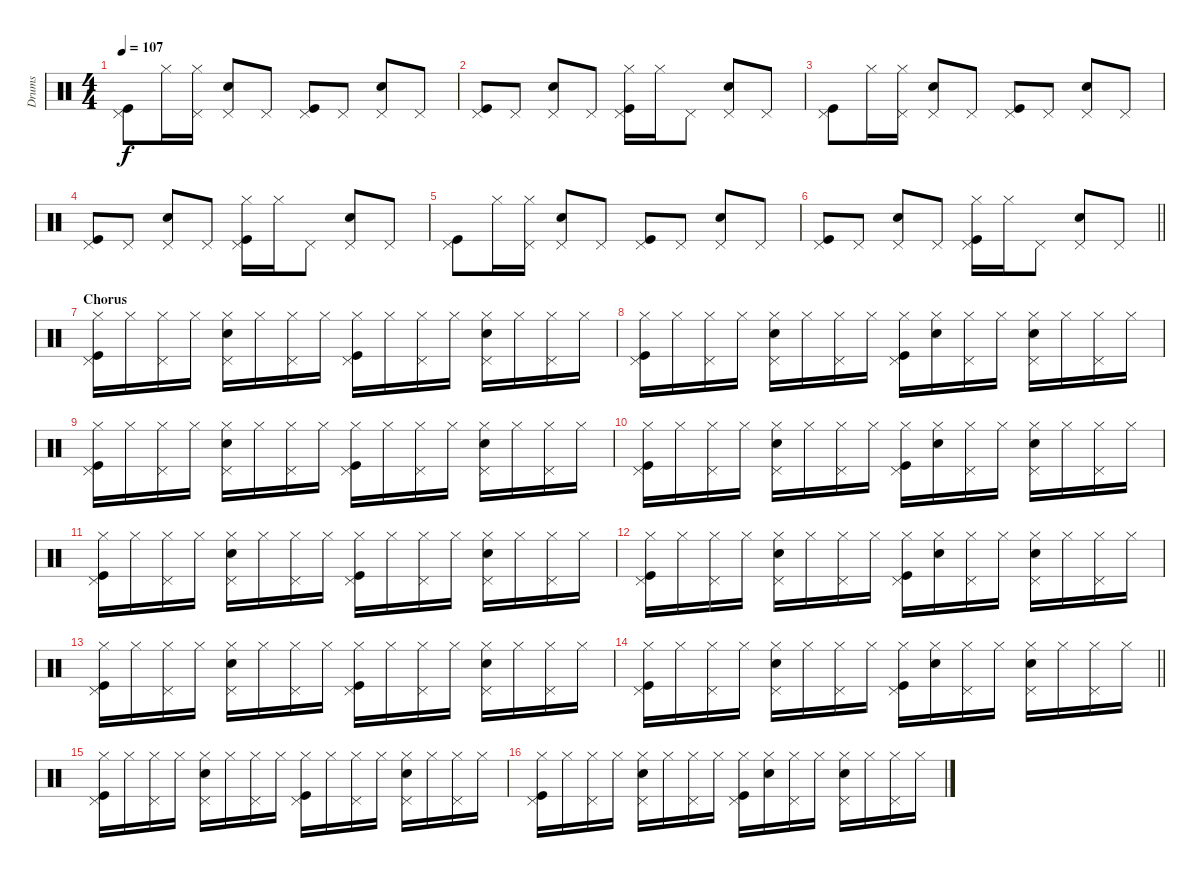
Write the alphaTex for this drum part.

\track ("Drums" "Drums") {instrument percussion}
\staff {score}
\articulation defaults
\ts (4 4)
\tempo 107
\clef neutral
\ks c
("Kick (hit)" "Pedal Hi-Hat (hit)").8{dy f} "Hi-Hat (closed)".16 ("Pedal Hi-Hat (hit)" "Hi-Hat (closed)").16 ("Snare (hit) 2" "Pedal Hi-Hat (hit)").8 "Pedal Hi-Hat (hit)".8 ("Kick (hit)" "Pedal Hi-Hat (hit)").8 "Pedal Hi-Hat (hit)".8 ("Snare (hit) 2" "Pedal Hi-Hat (hit)").8 "Pedal Hi-Hat (hit)".8 |
("Kick (hit)" "Pedal Hi-Hat (hit)").8 "Pedal Hi-Hat (hit)".8 ("Snare (hit) 2" "Pedal Hi-Hat (hit)").8 "Pedal Hi-Hat (hit)".8 ("Kick (hit)" "Pedal Hi-Hat (hit)" "Hi-Hat (closed)").16 "Hi-Hat (closed)".16 "Pedal Hi-Hat (hit)".8 ("Snare (hit) 2" "Pedal Hi-Hat (hit)").8 "Pedal Hi-Hat (hit)".8 |
("Kick (hit)" "Pedal Hi-Hat (hit)").8 "Hi-Hat (closed)".16 ("Pedal Hi-Hat (hit)" "Hi-Hat (closed)").16 ("Snare (hit) 2" "Pedal Hi-Hat (hit)").8 "Pedal Hi-Hat (hit)".8 ("Kick (hit)" "Pedal Hi-Hat (hit)").8 "Pedal Hi-Hat (hit)".8 ("Snare (hit) 2" "Pedal Hi-Hat (hit)").8 "Pedal Hi-Hat (hit)".8 |
("Kick (hit)" "Pedal Hi-Hat (hit)").8 "Pedal Hi-Hat (hit)".8 ("Snare (hit) 2" "Pedal Hi-Hat (hit)").8 "Pedal Hi-Hat (hit)".8 ("Kick (hit)" "Pedal Hi-Hat (hit)" "Hi-Hat (closed)").16 "Hi-Hat (closed)".16 "Pedal Hi-Hat (hit)".8 ("Snare (hit) 2" "Pedal Hi-Hat (hit)").8 "Pedal Hi-Hat (hit)".8 |
("Kick (hit)" "Pedal Hi-Hat (hit)").8 "Hi-Hat (closed)".16 ("Pedal Hi-Hat (hit)" "Hi-Hat (closed)").16 ("Snare (hit) 2" "Pedal Hi-Hat (hit)").8 "Pedal Hi-Hat (hit)".8 ("Kick (hit)" "Pedal Hi-Hat (hit)").8 "Pedal Hi-Hat (hit)".8 ("Snare (hit) 2" "Pedal Hi-Hat (hit)").8 "Pedal Hi-Hat (hit)".8 |
\barLineRight lightlight
("Kick (hit)" "Pedal Hi-Hat (hit)").8 "Pedal Hi-Hat (hit)".8 ("Snare (hit) 2" "Pedal Hi-Hat (hit)").8 "Pedal Hi-Hat (hit)".8 ("Kick (hit)" "Pedal Hi-Hat (hit)" "Hi-Hat (closed)").16 "Hi-Hat (closed)".16 "Pedal Hi-Hat (hit)".8 ("Snare (hit) 2" "Pedal Hi-Hat (hit)").8 "Pedal Hi-Hat (hit)".8 |
\section ("" "Chorus")
("Kick (hit)" "Pedal Hi-Hat (hit)" "Hi-Hat (closed)").16 "Hi-Hat (closed)".16 ("Pedal Hi-Hat (hit)" "Hi-Hat (closed)").16 "Hi-Hat (closed)".16 ("Snare (hit) 2" "Pedal Hi-Hat (hit)" "Hi-Hat (closed)").16 "Hi-Hat (closed)".16 ("Pedal Hi-Hat (hit)" "Hi-Hat (closed)").16 "Hi-Hat (closed)".16 ("Kick (hit)" "Pedal Hi-Hat (hit)" "Hi-Hat (closed)").16 "Hi-Hat (closed)".16 ("Pedal Hi-Hat (hit)" "Hi-Hat (closed)").16 "Hi-Hat (closed)".16 ("Snare (hit) 2" "Pedal Hi-Hat (hit)" "Hi-Hat (closed)").16 "Hi-Hat (closed)".16 ("Pedal Hi-Hat (hit)" "Hi-Hat (closed)").16 "Hi-Hat (closed)".16 |
("Kick (hit)" "Pedal Hi-Hat (hit)" "Hi-Hat (closed)").16 "Hi-Hat (closed)".16 ("Pedal Hi-Hat (hit)" "Hi-Hat (closed)").16 "Hi-Hat (closed)".16 ("Snare (hit) 2" "Pedal Hi-Hat (hit)" "Hi-Hat (closed)").16 "Hi-Hat (closed)".16 ("Pedal Hi-Hat (hit)" "Hi-Hat (closed)").16 "Hi-Hat (closed)".16 ("Kick (hit)" "Pedal Hi-Hat (hit)" "Hi-Hat (closed)").16 ("Snare (hit) 2" "Hi-Hat (closed)").16 ("Pedal Hi-Hat (hit)" "Hi-Hat (closed)").16 "Hi-Hat (closed)".16 ("Snare (hit) 2" "Pedal Hi-Hat (hit)" "Hi-Hat (closed)").16 "Hi-Hat (closed)".16 ("Pedal Hi-Hat (hit)" "Hi-Hat (closed)").16 "Hi-Hat (closed)".16 |
("Kick (hit)" "Pedal Hi-Hat (hit)" "Hi-Hat (closed)").16 "Hi-Hat (closed)".16 ("Pedal Hi-Hat (hit)" "Hi-Hat (closed)").16 "Hi-Hat (closed)".16 ("Snare (hit) 2" "Pedal Hi-Hat (hit)" "Hi-Hat (closed)").16 "Hi-Hat (closed)".16 ("Pedal Hi-Hat (hit)" "Hi-Hat (closed)").16 "Hi-Hat (closed)".16 ("Kick (hit)" "Pedal Hi-Hat (hit)" "Hi-Hat (closed)").16 "Hi-Hat (closed)".16 ("Pedal Hi-Hat (hit)" "Hi-Hat (closed)").16 "Hi-Hat (closed)".16 ("Snare (hit) 2" "Pedal Hi-Hat (hit)" "Hi-Hat (closed)").16 "Hi-Hat (closed)".16 ("Pedal Hi-Hat (hit)" "Hi-Hat (closed)").16 "Hi-Hat (closed)".16 |
("Kick (hit)" "Pedal Hi-Hat (hit)" "Hi-Hat (closed)").16 "Hi-Hat (closed)".16 ("Pedal Hi-Hat (hit)" "Hi-Hat (closed)").16 "Hi-Hat (closed)".16 ("Snare (hit) 2" "Pedal Hi-Hat (hit)" "Hi-Hat (closed)").16 "Hi-Hat (closed)".16 ("Pedal Hi-Hat (hit)" "Hi-Hat (closed)").16 "Hi-Hat (closed)".16 ("Kick (hit)" "Pedal Hi-Hat (hit)" "Hi-Hat (closed)").16 ("Snare (hit) 2" "Hi-Hat (closed)").16 ("Pedal Hi-Hat (hit)" "Hi-Hat (closed)").16 "Hi-Hat (closed)".16 ("Snare (hit) 2" "Pedal Hi-Hat (hit)" "Hi-Hat (closed)").16 "Hi-Hat (closed)".16 ("Pedal Hi-Hat (hit)" "Hi-Hat (closed)").16 "Hi-Hat (closed)".16 |
("Kick (hit)" "Pedal Hi-Hat (hit)" "Hi-Hat (closed)").16 "Hi-Hat (closed)".16 ("Pedal Hi-Hat (hit)" "Hi-Hat (closed)").16 "Hi-Hat (closed)".16 ("Snare (hit) 2" "Pedal Hi-Hat (hit)" "Hi-Hat (closed)").16 "Hi-Hat (closed)".16 ("Pedal Hi-Hat (hit)" "Hi-Hat (closed)").16 "Hi-Hat (closed)".16 ("Kick (hit)" "Pedal Hi-Hat (hit)" "Hi-Hat (closed)").16 "Hi-Hat (closed)".16 ("Pedal Hi-Hat (hit)" "Hi-Hat (closed)").16 "Hi-Hat (closed)".16 ("Snare (hit) 2" "Pedal Hi-Hat (hit)" "Hi-Hat (closed)").16 "Hi-Hat (closed)".16 ("Pedal Hi-Hat (hit)" "Hi-Hat (closed)").16 "Hi-Hat (closed)".16 |
("Kick (hit)" "Pedal Hi-Hat (hit)" "Hi-Hat (closed)").16 "Hi-Hat (closed)".16 ("Pedal Hi-Hat (hit)" "Hi-Hat (closed)").16 "Hi-Hat (closed)".16 ("Snare (hit) 2" "Pedal Hi-Hat (hit)" "Hi-Hat (closed)").16 "Hi-Hat (closed)".16 ("Pedal Hi-Hat (hit)" "Hi-Hat (closed)").16 "Hi-Hat (closed)".16 ("Kick (hit)" "Pedal Hi-Hat (hit)" "Hi-Hat (closed)").16 ("Snare (hit) 2" "Hi-Hat (closed)").16 ("Pedal Hi-Hat (hit)" "Hi-Hat (closed)").16 "Hi-Hat (closed)".16 ("Snare (hit) 2" "Pedal Hi-Hat (hit)" "Hi-Hat (closed)").16 "Hi-Hat (closed)".16 ("Pedal Hi-Hat (hit)" "Hi-Hat (closed)").16 "Hi-Hat (closed)".16 |
("Kick (hit)" "Pedal Hi-Hat (hit)" "Hi-Hat (closed)").16 "Hi-Hat (closed)".16 ("Pedal Hi-Hat (hit)" "Hi-Hat (closed)").16 "Hi-Hat (closed)".16 ("Snare (hit) 2" "Pedal Hi-Hat (hit)" "Hi-Hat (closed)").16 "Hi-Hat (closed)".16 ("Pedal Hi-Hat (hit)" "Hi-Hat (closed)").16 "Hi-Hat (closed)".16 ("Kick (hit)" "Pedal Hi-Hat (hit)" "Hi-Hat (closed)").16 "Hi-Hat (closed)".16 ("Pedal Hi-Hat (hit)" "Hi-Hat (closed)").16 "Hi-Hat (closed)".16 ("Snare (hit) 2" "Pedal Hi-Hat (hit)" "Hi-Hat (closed)").16 "Hi-Hat (closed)".16 ("Pedal Hi-Hat (hit)" "Hi-Hat (closed)").16 "Hi-Hat (closed)".16 |
\barLineRight lightlight
("Kick (hit)" "Pedal Hi-Hat (hit)" "Hi-Hat (closed)").16 "Hi-Hat (closed)".16 ("Pedal Hi-Hat (hit)" "Hi-Hat (closed)").16 "Hi-Hat (closed)".16 ("Snare (hit) 2" "Pedal Hi-Hat (hit)" "Hi-Hat (closed)").16 "Hi-Hat (closed)".16 ("Pedal Hi-Hat (hit)" "Hi-Hat (closed)").16 "Hi-Hat (closed)".16 ("Kick (hit)" "Pedal Hi-Hat (hit)" "Hi-Hat (closed)").16 ("Snare (hit) 2" "Hi-Hat (closed)").16 ("Pedal Hi-Hat (hit)" "Hi-Hat (closed)").16 "Hi-Hat (closed)".16 ("Snare (hit) 2" "Pedal Hi-Hat (hit)" "Hi-Hat (closed)").16 "Hi-Hat (closed)".16 ("Pedal Hi-Hat (hit)" "Hi-Hat (closed)").16 "Hi-Hat (closed)".16 |
("Kick (hit)" "Pedal Hi-Hat (hit)" "Hi-Hat (closed)").16 "Hi-Hat (closed)".16 ("Pedal Hi-Hat (hit)" "Hi-Hat (closed)").16 "Hi-Hat (closed)".16 ("Snare (hit) 2" "Pedal Hi-Hat (hit)" "Hi-Hat (closed)").16 "Hi-Hat (closed)".16 ("Pedal Hi-Hat (hit)" "Hi-Hat (closed)").16 "Hi-Hat (closed)".16 ("Kick (hit)" "Pedal Hi-Hat (hit)" "Hi-Hat (closed)").16 "Hi-Hat (closed)".16 ("Pedal Hi-Hat (hit)" "Hi-Hat (closed)").16 "Hi-Hat (closed)".16 ("Snare (hit) 2" "Pedal Hi-Hat (hit)" "Hi-Hat (closed)").16 "Hi-Hat (closed)".16 ("Pedal Hi-Hat (hit)" "Hi-Hat (closed)").16 "Hi-Hat (closed)".16 |
("Kick (hit)" "Pedal Hi-Hat (hit)" "Hi-Hat (closed)").16 "Hi-Hat (closed)".16 ("Pedal Hi-Hat (hit)" "Hi-Hat (closed)").16 "Hi-Hat (closed)".16 ("Snare (hit) 2" "Pedal Hi-Hat (hit)" "Hi-Hat (closed)").16 "Hi-Hat (closed)".16 ("Pedal Hi-Hat (hit)" "Hi-Hat (closed)").16 "Hi-Hat (closed)".16 ("Kick (hit)" "Pedal Hi-Hat (hit)" "Hi-Hat (closed)").16 ("Snare (hit) 2" "Hi-Hat (closed)").16 ("Pedal Hi-Hat (hit)" "Hi-Hat (closed)").16 "Hi-Hat (closed)".16 ("Snare (hit) 2" "Pedal Hi-Hat (hit)" "Hi-Hat (closed)").16 "Hi-Hat (closed)".16 ("Pedal Hi-Hat (hit)" "Hi-Hat (closed)").16 "Hi-Hat (closed)".16
